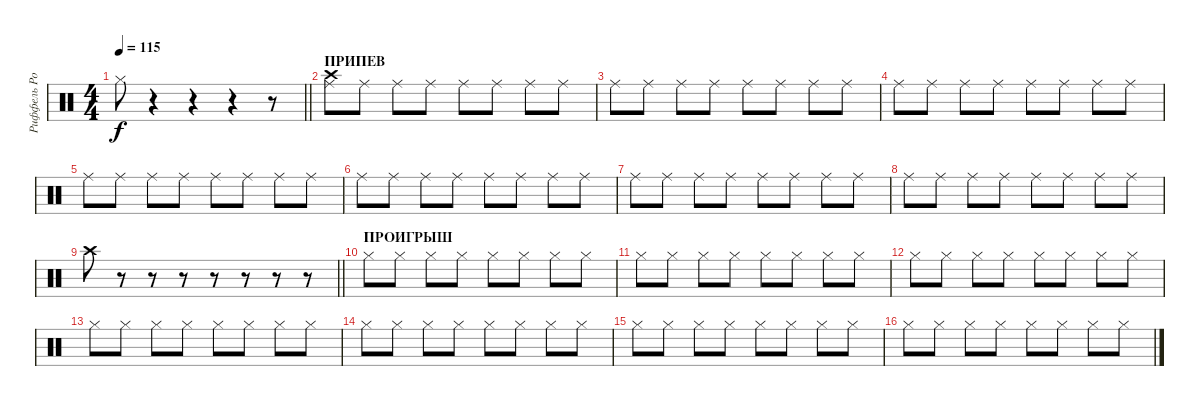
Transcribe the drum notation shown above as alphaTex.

\track ("Риффель Роман (хэты)" "Риффель Ро") {instrument percussion}
\staff {score}
\articulation defaults
\ts (4 4)
\tempo 115
\clef neutral
\barLineRight lightlight
\ks c "Hi-Hat (closed)".8{dy f}
r.4 r.4 r.4 r.8 |
\section ("" "ПРИПЕВ")
("Ride (middle)" "Crash high (hit)").8 "Ride (middle)".8 "Ride (middle)".8 "Ride (middle)".8 "Ride (middle)".8 "Ride (middle)".8 "Ride (middle)".8 "Ride (middle)".8 |
"Ride (middle)".8 "Ride (middle)".8 "Ride (middle)".8 "Ride (middle)".8 "Ride (middle)".8 "Ride (middle)".8 "Ride (middle)".8 "Ride (middle)".8 |
"Ride (middle)".8 "Ride (middle)".8 "Ride (middle)".8 "Ride (middle)".8 "Ride (middle)".8 "Ride (middle)".8 "Ride (middle)".8 "Ride (middle)".8 |
"Ride (middle)".8 "Ride (middle)".8 "Ride (middle)".8 "Ride (middle)".8 "Ride (middle)".8 "Ride (middle)".8 "Ride (middle)".8 "Ride (middle)".8 |
"Ride (middle)".8 "Ride (middle)".8 "Ride (middle)".8 "Ride (middle)".8 "Ride (middle)".8 "Ride (middle)".8 "Ride (middle)".8 "Ride (middle)".8 |
"Ride (middle)".8 "Ride (middle)".8 "Ride (middle)".8 "Ride (middle)".8 "Ride (middle)".8 "Ride (middle)".8 "Ride (middle)".8 "Ride (middle)".8 |
"Ride (middle)".8 "Ride (middle)".8 "Ride (middle)".8 "Ride (middle)".8 "Ride (middle)".8 "Ride (middle)".8 "Ride (middle)".8 "Ride (middle)".8 |
\barLineRight lightlight "Crash high (hit)".8
r.8 r.8 r.8 r.8 r.8 r.8 r.8 |
\section ("" "ПРОИГРЫШ")
"Hi-Hat (closed)".8 "Hi-Hat (closed)".8 "Hi-Hat (closed)".8 "Hi-Hat (closed)".8 "Hi-Hat (closed)".8 "Hi-Hat (closed)".8 "Hi-Hat (closed)".8 "Hi-Hat (closed)".8 |
"Hi-Hat (closed)".8 "Hi-Hat (closed)".8 "Hi-Hat (closed)".8 "Hi-Hat (closed)".8 "Hi-Hat (closed)".8 "Hi-Hat (closed)".8 "Hi-Hat (closed)".8 "Hi-Hat (closed)".8 |
"Hi-Hat (closed)".8 "Hi-Hat (closed)".8 "Hi-Hat (closed)".8 "Hi-Hat (closed)".8 "Hi-Hat (closed)".8 "Hi-Hat (closed)".8 "Hi-Hat (closed)".8 "Hi-Hat (closed)".8 |
"Hi-Hat (closed)".8 "Hi-Hat (closed)".8 "Hi-Hat (closed)".8 "Hi-Hat (closed)".8 "Hi-Hat (closed)".8 "Hi-Hat (closed)".8 "Hi-Hat (closed)".8 "Hi-Hat (closed)".8 |
"Hi-Hat (closed)".8 "Hi-Hat (closed)".8 "Hi-Hat (closed)".8 "Hi-Hat (closed)".8 "Hi-Hat (closed)".8 "Hi-Hat (closed)".8 "Hi-Hat (closed)".8 "Hi-Hat (closed)".8 |
"Hi-Hat (closed)".8 "Hi-Hat (closed)".8 "Hi-Hat (closed)".8 "Hi-Hat (closed)".8 "Hi-Hat (closed)".8 "Hi-Hat (closed)".8 "Hi-Hat (closed)".8 "Hi-Hat (closed)".8 |
"Hi-Hat (closed)".8 "Hi-Hat (closed)".8 "Hi-Hat (closed)".8 "Hi-Hat (closed)".8 "Hi-Hat (closed)".8 "Hi-Hat (closed)".8 "Hi-Hat (closed)".8 "Hi-Hat (closed)".8
